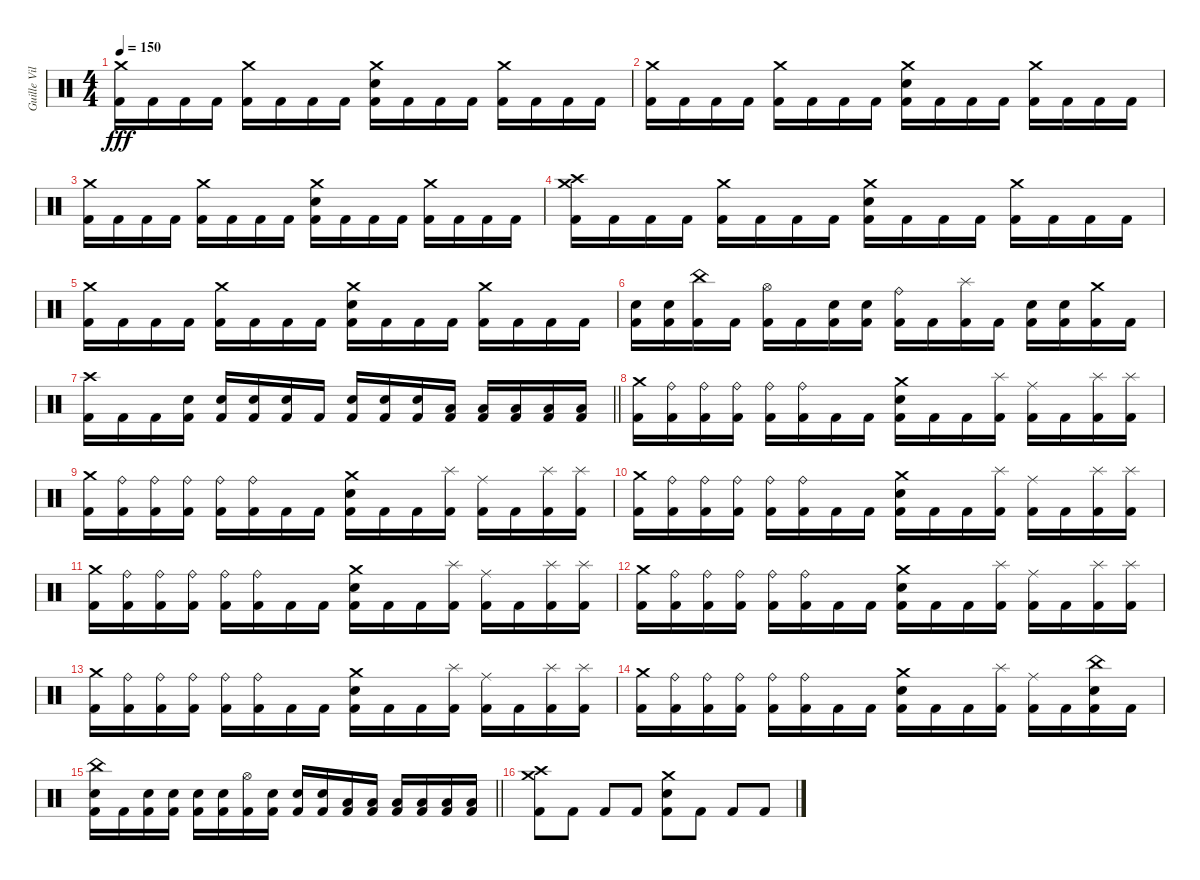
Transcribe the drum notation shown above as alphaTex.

\track ("Guille Vila" "Guille Vil") {instrument percussion}
\staff {score}
\articulation defaults
\ts (4 4)
\tempo 150
\clef neutral
\ks c
("Crash medium (hit)" "Kick (hit) 2").16{dy fff} "Kick (hit) 2".16 "Kick (hit) 2".16 "Kick (hit) 2".16 ("Crash medium (hit)" "Kick (hit) 2").16 "Kick (hit) 2".16 "Kick (hit) 2".16 "Kick (hit) 2".16 ("Crash medium (hit)" "Snare (hit) 2" "Kick (hit) 2").16 "Kick (hit) 2".16 "Kick (hit) 2".16 "Kick (hit) 2".16 ("Crash medium (hit)" "Kick (hit) 2").16 "Kick (hit) 2".16 "Kick (hit) 2".16 "Kick (hit) 2".16 |
("Crash medium (hit)" "Kick (hit) 2").16 "Kick (hit) 2".16 "Kick (hit) 2".16 "Kick (hit) 2".16 ("Crash medium (hit)" "Kick (hit) 2").16 "Kick (hit) 2".16 "Kick (hit) 2".16 "Kick (hit) 2".16 ("Crash medium (hit)" "Snare (hit) 2" "Kick (hit) 2").16 "Kick (hit) 2".16 "Kick (hit) 2".16 "Kick (hit) 2".16 ("Crash medium (hit)" "Kick (hit) 2").16 "Kick (hit) 2".16 "Kick (hit) 2".16 "Kick (hit) 2".16 |
("Crash medium (hit)" "Kick (hit) 2").16 "Kick (hit) 2".16 "Kick (hit) 2".16 "Kick (hit) 2".16 ("Crash medium (hit)" "Kick (hit) 2").16 "Kick (hit) 2".16 "Kick (hit) 2".16 "Kick (hit) 2".16 ("Crash medium (hit)" "Snare (hit) 2" "Kick (hit) 2").16 "Kick (hit) 2".16 "Kick (hit) 2".16 "Kick (hit) 2".16 ("Crash medium (hit)" "Kick (hit) 2").16 "Kick (hit) 2".16 "Kick (hit) 2".16 "Kick (hit) 2".16 |
("Crash medium (hit)" "Crash high (hit)" "Kick (hit) 2").16 "Kick (hit) 2".16 "Kick (hit) 2".16 "Kick (hit) 2".16 ("Crash medium (hit)" "Kick (hit) 2").16 "Kick (hit) 2".16 "Kick (hit) 2".16 "Kick (hit) 2".16 ("Crash medium (hit)" "Snare (hit) 2" "Kick (hit) 2").16 "Kick (hit) 2".16 "Kick (hit) 2".16 "Kick (hit) 2".16 ("Crash medium (hit)" "Kick (hit) 2").16 "Kick (hit) 2".16 "Kick (hit) 2".16 "Kick (hit) 2".16 |
("Crash medium (hit)" "Kick (hit) 2").16 "Kick (hit) 2".16 "Kick (hit) 2".16 "Kick (hit) 2".16 ("Crash medium (hit)" "Kick (hit) 2").16 "Kick (hit) 2".16 "Kick (hit) 2".16 "Kick (hit) 2".16 ("Crash medium (hit)" "Snare (hit) 2" "Kick (hit) 2").16 "Kick (hit) 2".16 "Kick (hit) 2".16 "Kick (hit) 2".16 ("Crash medium (hit)" "Kick (hit) 2").16 "Kick (hit) 2".16 "Kick (hit) 2".16 "Kick (hit) 2".16 |
("Snare (hit) 2" "Kick (hit) 2").16 ("Snare (hit) 2" "Kick (hit) 2").16 ("China (hit)" "Kick (hit) 2").16 "Kick (hit) 2".16 ("Hi-Hat (open)" "Kick (hit) 2").16 "Kick (hit) 2".16 ("Snare (hit) 2" "Kick (hit) 2").16 ("Snare (hit) 2" "Kick (hit) 2").16 ("Ride (bell)" "Kick (hit) 2").16 "Kick (hit) 2".16 ("Splash (hit)" "Kick (hit) 2").16 "Kick (hit) 2".16 ("Snare (hit) 2" "Kick (hit) 2").16 ("Snare (hit) 2" "Kick (hit) 2").16 ("Crash medium (hit)" "Kick (hit) 2").16 "Kick (hit) 2".16 |
\barLineRight lightlight
("Crash high (hit)" "Kick (hit) 2").16 "Kick (hit) 2".16 "Kick (hit) 2".16 ("Snare (hit) 2" "Kick (hit) 2").16 ("Snare (hit) 2" "Kick (hit) 2").16 ("Snare (hit) 2" "Kick (hit) 2").16 ("Snare (hit) 2" "Kick (hit) 2").16 "Kick (hit) 2".16 ("Snare (hit) 2" "Kick (hit) 2").16 ("Snare (hit) 2" "Kick (hit) 2").16 ("Snare (hit) 2" "Kick (hit) 2").16 ("Low Tom (hit)" "Kick (hit) 2").16 ("Low Tom (hit)" "Kick (hit) 2").16 ("Low Tom (hit)" "Kick (hit) 2").16 ("Low Floor Tom (hit)" "Kick (hit) 2").16 ("Low Floor Tom (hit)" "Kick (hit) 2").16 |
("Crash medium (hit)" "Kick (hit) 2").16 ("Ride (bell)" "Kick (hit) 2").16 ("Ride (bell)" "Kick (hit) 2").16 ("Ride (bell)" "Kick (hit) 2").16 ("Ride (bell)" "Kick (hit) 2").16 ("Ride (bell)" "Kick (hit) 2").16 "Kick (hit) 2".16 "Kick (hit) 2".16 ("Crash medium (hit)" "Snare (hit) 2" "Kick (hit) 2").16 "Kick (hit) 2".16 "Kick (hit) 2".16 ("Splash (hit)" "Kick (hit) 2").16 ("Ride (middle)" "Kick (hit) 2").16 "Kick (hit) 2".16 ("Splash (hit)" "Kick (hit) 2").16 ("Splash (hit)" "Kick (hit) 2").16 |
("Crash medium (hit)" "Kick (hit) 2").16 ("Ride (bell)" "Kick (hit) 2").16 ("Ride (bell)" "Kick (hit) 2").16 ("Ride (bell)" "Kick (hit) 2").16 ("Ride (bell)" "Kick (hit) 2").16 ("Ride (bell)" "Kick (hit) 2").16 "Kick (hit) 2".16 "Kick (hit) 2".16 ("Crash medium (hit)" "Snare (hit) 2" "Kick (hit) 2").16 "Kick (hit) 2".16 "Kick (hit) 2".16 ("Splash (hit)" "Kick (hit) 2").16 ("Ride (middle)" "Kick (hit) 2").16 "Kick (hit) 2".16 ("Splash (hit)" "Kick (hit) 2").16 ("Splash (hit)" "Kick (hit) 2").16 |
("Crash medium (hit)" "Kick (hit) 2").16 ("Ride (bell)" "Kick (hit) 2").16 ("Ride (bell)" "Kick (hit) 2").16 ("Ride (bell)" "Kick (hit) 2").16 ("Ride (bell)" "Kick (hit) 2").16 ("Ride (bell)" "Kick (hit) 2").16 "Kick (hit) 2".16 "Kick (hit) 2".16 ("Crash medium (hit)" "Snare (hit) 2" "Kick (hit) 2").16 "Kick (hit) 2".16 "Kick (hit) 2".16 ("Splash (hit)" "Kick (hit) 2").16 ("Ride (middle)" "Kick (hit) 2").16 "Kick (hit) 2".16 ("Splash (hit)" "Kick (hit) 2").16 ("Splash (hit)" "Kick (hit) 2").16 |
("Crash medium (hit)" "Kick (hit) 2").16 ("Ride (bell)" "Kick (hit) 2").16 ("Ride (bell)" "Kick (hit) 2").16 ("Ride (bell)" "Kick (hit) 2").16 ("Ride (bell)" "Kick (hit) 2").16 ("Ride (bell)" "Kick (hit) 2").16 "Kick (hit) 2".16 "Kick (hit) 2".16 ("Crash medium (hit)" "Snare (hit) 2" "Kick (hit) 2").16 "Kick (hit) 2".16 "Kick (hit) 2".16 ("Splash (hit)" "Kick (hit) 2").16 ("Ride (middle)" "Kick (hit) 2").16 "Kick (hit) 2".16 ("Splash (hit)" "Kick (hit) 2").16 ("Splash (hit)" "Kick (hit) 2").16 |
("Crash medium (hit)" "Kick (hit) 2").16 ("Ride (bell)" "Kick (hit) 2").16 ("Ride (bell)" "Kick (hit) 2").16 ("Ride (bell)" "Kick (hit) 2").16 ("Ride (bell)" "Kick (hit) 2").16 ("Ride (bell)" "Kick (hit) 2").16 "Kick (hit) 2".16 "Kick (hit) 2".16 ("Crash medium (hit)" "Snare (hit) 2" "Kick (hit) 2").16 "Kick (hit) 2".16 "Kick (hit) 2".16 ("Splash (hit)" "Kick (hit) 2").16 ("Ride (middle)" "Kick (hit) 2").16 "Kick (hit) 2".16 ("Splash (hit)" "Kick (hit) 2").16 ("Splash (hit)" "Kick (hit) 2").16 |
("Crash medium (hit)" "Kick (hit) 2").16 ("Ride (bell)" "Kick (hit) 2").16 ("Ride (bell)" "Kick (hit) 2").16 ("Ride (bell)" "Kick (hit) 2").16 ("Ride (bell)" "Kick (hit) 2").16 ("Ride (bell)" "Kick (hit) 2").16 "Kick (hit) 2".16 "Kick (hit) 2".16 ("Crash medium (hit)" "Snare (hit) 2" "Kick (hit) 2").16 "Kick (hit) 2".16 "Kick (hit) 2".16 ("Splash (hit)" "Kick (hit) 2").16 ("Ride (middle)" "Kick (hit) 2").16 "Kick (hit) 2".16 ("Splash (hit)" "Kick (hit) 2").16 ("Splash (hit)" "Kick (hit) 2").16 |
("Crash medium (hit)" "Kick (hit) 2").16 ("Ride (bell)" "Kick (hit) 2").16 ("Ride (bell)" "Kick (hit) 2").16 ("Ride (bell)" "Kick (hit) 2").16 ("Ride (bell)" "Kick (hit) 2").16 ("Ride (bell)" "Kick (hit) 2").16 "Kick (hit) 2".16 "Kick (hit) 2".16 ("Crash medium (hit)" "Snare (hit) 2" "Kick (hit) 2").16 "Kick (hit) 2".16 "Kick (hit) 2".16 ("Splash (hit)" "Kick (hit) 2").16 ("Ride (middle)" "Kick (hit) 2").16 "Kick (hit) 2".16 ("China (hit)" "Snare (hit) 2" "Kick (hit) 2").16 "Kick (hit) 2".16 |
\barLineRight lightlight
("China (hit)" "Snare (hit) 2" "Kick (hit) 2").16 "Kick (hit) 2".16 ("Snare (hit) 2" "Kick (hit) 2").16 ("Snare (hit) 2" "Kick (hit) 2").16 ("Snare (hit) 2" "Kick (hit) 2").16 ("Snare (hit) 2" "Kick (hit) 2").16 ("Hi-Hat (open)" "Kick (hit) 2").16 ("Snare (hit) 2" "Kick (hit) 2").16 ("Snare (hit) 2" "Kick (hit) 2").16 ("Snare (hit) 2" "Kick (hit) 2").16 ("Low Tom (hit)" "Kick (hit) 2").16 ("Low Tom (hit)" "Kick (hit) 2").16 ("Low Tom (hit)" "Kick (hit) 2").16 ("Low Tom (hit)" "Kick (hit) 2").16 ("Low Floor Tom (hit)" "Kick (hit) 2").16 ("Low Floor Tom (hit)" "Kick (hit) 2").16 |
("Crash high (hit)" "Crash medium (hit)" "Kick (hit) 2").8 "Kick (hit) 2".8 "Kick (hit) 2".8 "Kick (hit) 2".8 ("Crash medium (hit)" "Snare (hit) 2" "Kick (hit) 2").8 "Kick (hit) 2".8 "Kick (hit) 2".8 "Kick (hit) 2".8
